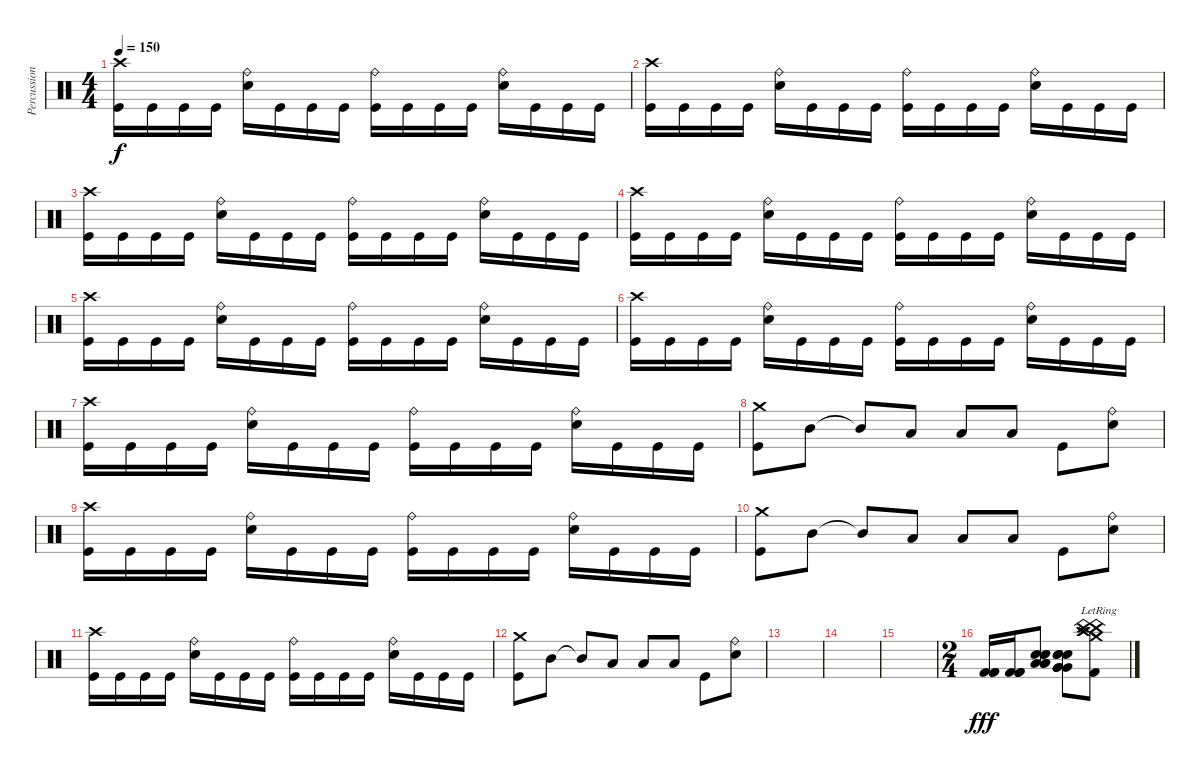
\track ("Percussions" "Percussion") {instrument percussion}
\staff {score}
\articulation defaults
\ts (4 4)
\tempo 150
\clef neutral
\ks c
("Kick (hit)" "Crash high (hit)").16{dy f} "Kick (hit)".16 "Kick (hit)".16 "Kick (hit)".16 ("Electric Snare (hit)" "Ride (bell)").16 "Kick (hit)".16 "Kick (hit)".16 "Kick (hit)".16 ("Kick (hit)" "Ride (bell)").16 "Kick (hit)".16 "Kick (hit)".16 "Kick (hit)".16 ("Electric Snare (hit)" "Ride (bell)").16 "Kick (hit)".16 "Kick (hit)".16 "Kick (hit)".16 |
("Kick (hit)" "Crash high (hit)").16 "Kick (hit)".16 "Kick (hit)".16 "Kick (hit)".16 ("Electric Snare (hit)" "Ride (bell)").16 "Kick (hit)".16 "Kick (hit)".16 "Kick (hit)".16 ("Kick (hit)" "Ride (bell)").16 "Kick (hit)".16 "Kick (hit)".16 "Kick (hit)".16 ("Electric Snare (hit)" "Ride (bell)").16 "Kick (hit)".16 "Kick (hit)".16 "Kick (hit)".16 |
("Kick (hit)" "Crash high (hit)").16 "Kick (hit)".16 "Kick (hit)".16 "Kick (hit)".16 ("Electric Snare (hit)" "Ride (bell)").16 "Kick (hit)".16 "Kick (hit)".16 "Kick (hit)".16 ("Kick (hit)" "Ride (bell)").16 "Kick (hit)".16 "Kick (hit)".16 "Kick (hit)".16 ("Electric Snare (hit)" "Ride (bell)").16 "Kick (hit)".16 "Kick (hit)".16 "Kick (hit)".16 |
("Kick (hit)" "Crash high (hit)").16 "Kick (hit)".16 "Kick (hit)".16 "Kick (hit)".16 ("Electric Snare (hit)" "Ride (bell)").16 "Kick (hit)".16 "Kick (hit)".16 "Kick (hit)".16 ("Kick (hit)" "Ride (bell)").16 "Kick (hit)".16 "Kick (hit)".16 "Kick (hit)".16 ("Electric Snare (hit)" "Ride (bell)").16 "Kick (hit)".16 "Kick (hit)".16 "Kick (hit)".16 |
("Kick (hit)" "Crash high (hit)").16 "Kick (hit)".16 "Kick (hit)".16 "Kick (hit)".16 ("Electric Snare (hit)" "Ride (bell)").16 "Kick (hit)".16 "Kick (hit)".16 "Kick (hit)".16 ("Kick (hit)" "Ride (bell)").16 "Kick (hit)".16 "Kick (hit)".16 "Kick (hit)".16 ("Electric Snare (hit)" "Ride (bell)").16 "Kick (hit)".16 "Kick (hit)".16 "Kick (hit)".16 |
("Kick (hit)" "Crash high (hit)").16 "Kick (hit)".16 "Kick (hit)".16 "Kick (hit)".16 ("Electric Snare (hit)" "Ride (bell)").16 "Kick (hit)".16 "Kick (hit)".16 "Kick (hit)".16 ("Kick (hit)" "Ride (bell)").16 "Kick (hit)".16 "Kick (hit)".16 "Kick (hit)".16 ("Electric Snare (hit)" "Ride (bell)").16 "Kick (hit)".16 "Kick (hit)".16 "Kick (hit)".16 |
("Kick (hit)" "Crash high (hit)").16 "Kick (hit)".16 "Kick (hit)".16 "Kick (hit)".16 ("Electric Snare (hit)" "Ride (bell)").16 "Kick (hit)".16 "Kick (hit)".16 "Kick (hit)".16 ("Kick (hit)" "Ride (bell)").16 "Kick (hit)".16 "Kick (hit)".16 "Kick (hit)".16 ("Electric Snare (hit)" "Ride (bell)").16 "Kick (hit)".16 "Kick (hit)".16 "Kick (hit)".16 |
("Kick (hit)" "Crash medium (hit)").8 "Mid Tom (hit)".8 "Mid Tom (hit)"{t}.8 "Low Tom (hit)".8 "Low Tom (hit)".8 "Low Tom (hit)".8 "Kick (hit)".8 ("Electric Snare (hit)" "Ride (bell)").8 |
("Kick (hit)" "Crash high (hit)").16 "Kick (hit)".16 "Kick (hit)".16 "Kick (hit)".16 ("Electric Snare (hit)" "Ride (bell)").16 "Kick (hit)".16 "Kick (hit)".16 "Kick (hit)".16 ("Kick (hit)" "Ride (bell)").16 "Kick (hit)".16 "Kick (hit)".16 "Kick (hit)".16 ("Electric Snare (hit)" "Ride (bell)").16 "Kick (hit)".16 "Kick (hit)".16 "Kick (hit)".16 |
("Kick (hit)" "Crash medium (hit)").8 "Mid Tom (hit)".8 "Mid Tom (hit)"{t}.8 "Low Tom (hit)".8 "Low Tom (hit)".8 "Low Tom (hit)".8 "Kick (hit)".8 ("Electric Snare (hit)" "Ride (bell)").8 |
("Kick (hit)" "Crash high (hit)").16 "Kick (hit)".16 "Kick (hit)".16 "Kick (hit)".16 ("Electric Snare (hit)" "Ride (bell)").16 "Kick (hit)".16 "Kick (hit)".16 "Kick (hit)".16 ("Kick (hit)" "Ride (bell)").16 "Kick (hit)".16 "Kick (hit)".16 "Kick (hit)".16 ("Electric Snare (hit)" "Ride (bell)").16 "Kick (hit)".16 "Kick (hit)".16 "Kick (hit)".16 |
("Kick (hit)" "Crash medium (hit)").8 "Mid Tom (hit)".8 "Mid Tom (hit)"{t}.8 "Low Tom (hit)".8 "Low Tom (hit)".8 "Low Tom (hit)".8 "Kick (hit)".8 ("Electric Snare (hit)" "Ride (bell)").8 |
|
|
|
\ts (2 4)
("Kick (hit) 2" "Kick (hit) 2" "Kick (hit) 2").16{dy fff} ("Kick (hit) 2" "Kick (hit) 2" "Kick (hit) 2").16 ("Electric Snare (hit)" "Electric Snare (hit)" "Electric Snare (hit)" "Low Floor Tom (hit)" "Low Floor Tom (hit)" "Low Floor Tom (hit)").8 ("Electric Snare (hit)" "Electric Snare (hit)" "Electric Snare (hit)" "Very Low Tom (hit)" "Very Low Tom (hit)" "Very Low Tom (hit)").8 ("Kick (hit) 2"{lr} "Crash high (hit)"{lr} "Crash high (hit)"{lr} "China (hit)"{lr} "China (hit)"{lr} "Crash medium (hit)"{lr}).8
